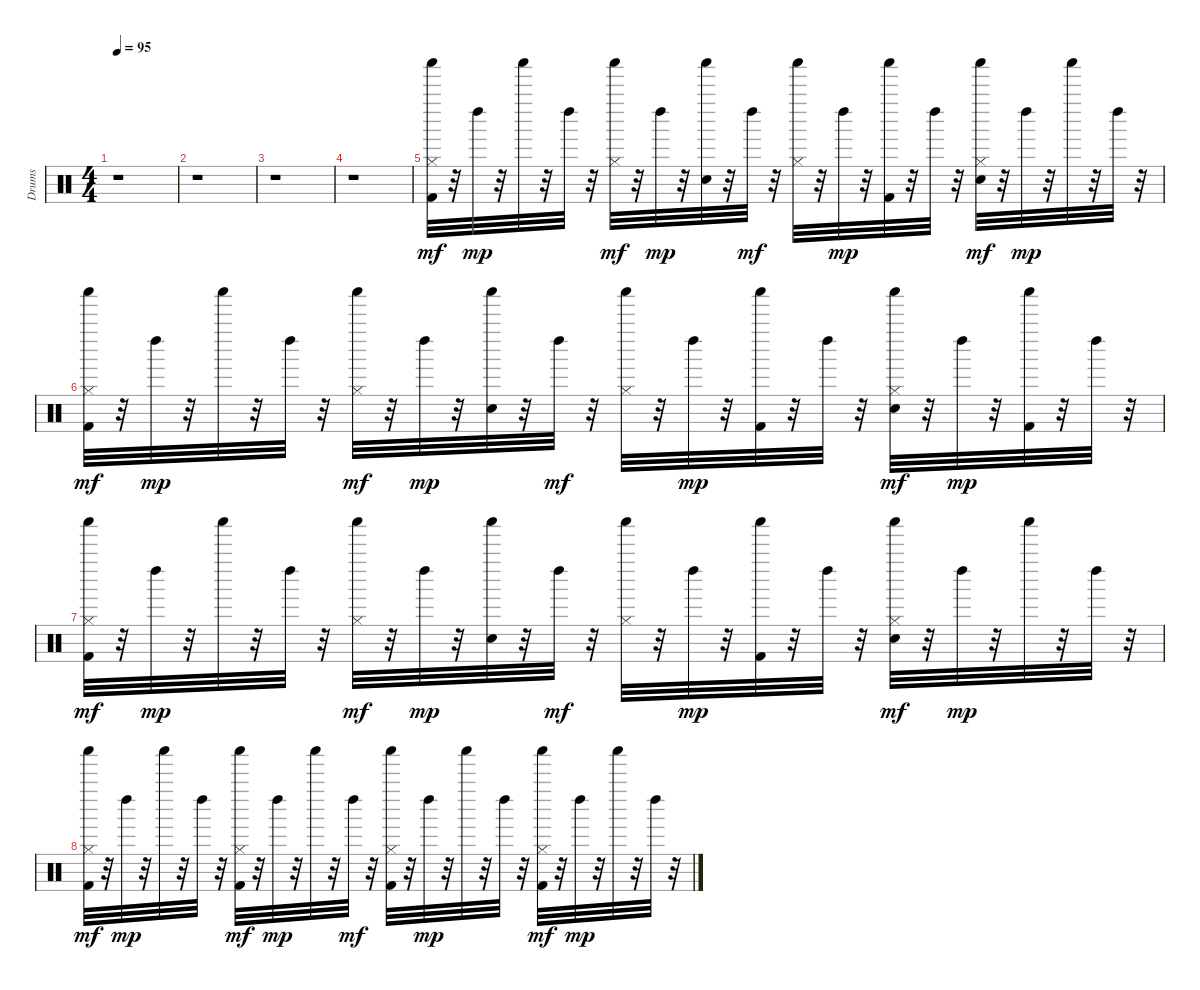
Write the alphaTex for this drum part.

\track ("Drums" "Drums") {instrument percussion}
\staff {score}
\articulation defaults
\ts (4 4)
\tempo 95
\clef neutral
\ks c
r.1{dy mf} |
r.1 |
r.1 |
r.1 |
("Kick (hit) 2" "Hi-Hat (closed)" "Shaker (hit)").32 r.32 "Left Maraca (hit)".32{dy mp} r.32 "Shaker (hit)".32 r.32 "Left Maraca (hit)".32 r.32 ("Hi-Hat (closed)" "Shaker (hit)").32{dy mf} r.32 "Left Maraca (hit)".32{dy mp} r.32 ("Electric Snare (hit)" "Shaker (hit)").32 r.32 "Left Maraca (hit)".32{dy mf} r.32 ("Hi-Hat (closed)" "Shaker (hit)").32 r.32 "Left Maraca (hit)".32{dy mp} r.32 ("Kick (hit) 2" "Shaker (hit)").32 r.32 "Left Maraca (hit)".32 r.32 ("Electric Snare (hit)" "Hi-Hat (closed)" "Shaker (hit)").32{dy mf} r.32 "Left Maraca (hit)".32{dy mp} r.32 "Shaker (hit)".32 r.32 "Left Maraca (hit)".32 r.32 |
("Kick (hit) 2" "Hi-Hat (closed)" "Shaker (hit)").32{dy mf} r.32 "Left Maraca (hit)".32{dy mp} r.32 "Shaker (hit)".32 r.32 "Left Maraca (hit)".32 r.32 ("Hi-Hat (closed)" "Shaker (hit)").32{dy mf} r.32 "Left Maraca (hit)".32{dy mp} r.32 ("Electric Snare (hit)" "Shaker (hit)").32 r.32 "Left Maraca (hit)".32{dy mf} r.32 ("Hi-Hat (closed)" "Shaker (hit)").32 r.32 "Left Maraca (hit)".32{dy mp} r.32 ("Kick (hit) 2" "Shaker (hit)").32 r.32 "Left Maraca (hit)".32 r.32 ("Electric Snare (hit)" "Hi-Hat (closed)" "Shaker (hit)").32{dy mf} r.32 "Left Maraca (hit)".32{dy mp} r.32 ("Kick (hit) 2" "Shaker (hit)").32 r.32 "Left Maraca (hit)".32 r.32 |
("Kick (hit) 2" "Hi-Hat (closed)" "Shaker (hit)").32{dy mf} r.32 "Left Maraca (hit)".32{dy mp} r.32 "Shaker (hit)".32 r.32 "Left Maraca (hit)".32 r.32 ("Hi-Hat (closed)" "Shaker (hit)").32{dy mf} r.32 "Left Maraca (hit)".32{dy mp} r.32 ("Electric Snare (hit)" "Shaker (hit)").32 r.32 "Left Maraca (hit)".32{dy mf} r.32 ("Hi-Hat (closed)" "Shaker (hit)").32 r.32 "Left Maraca (hit)".32{dy mp} r.32 ("Kick (hit) 2" "Shaker (hit)").32 r.32 "Left Maraca (hit)".32 r.32 ("Electric Snare (hit)" "Hi-Hat (closed)" "Shaker (hit)").32{dy mf} r.32 "Left Maraca (hit)".32{dy mp} r.32 "Shaker (hit)".32 r.32 "Left Maraca (hit)".32 r.32 |
("Kick (hit) 2" "Hi-Hat (closed)" "Shaker (hit)").32{dy mf} r.32 "Left Maraca (hit)".32{dy mp} r.32 "Shaker (hit)".32 r.32 "Left Maraca (hit)".32 r.32 ("Kick (hit) 2" "Hi-Hat (closed)" "Shaker (hit)").32{dy mf} r.32 "Left Maraca (hit)".32{dy mp} r.32 "Shaker (hit)".32 r.32 "Left Maraca (hit)".32{dy mf} r.32 ("Kick (hit) 2" "Hi-Hat (closed)" "Shaker (hit)").32 r.32 "Left Maraca (hit)".32{dy mp} r.32 "Shaker (hit)".32 r.32 "Left Maraca (hit)".32 r.32 ("Kick (hit) 2" "Hi-Hat (closed)" "Shaker (hit)").32{dy mf} r.32 "Left Maraca (hit)".32{dy mp} r.32 "Shaker (hit)".32 r.32 "Left Maraca (hit)".32 r.32
